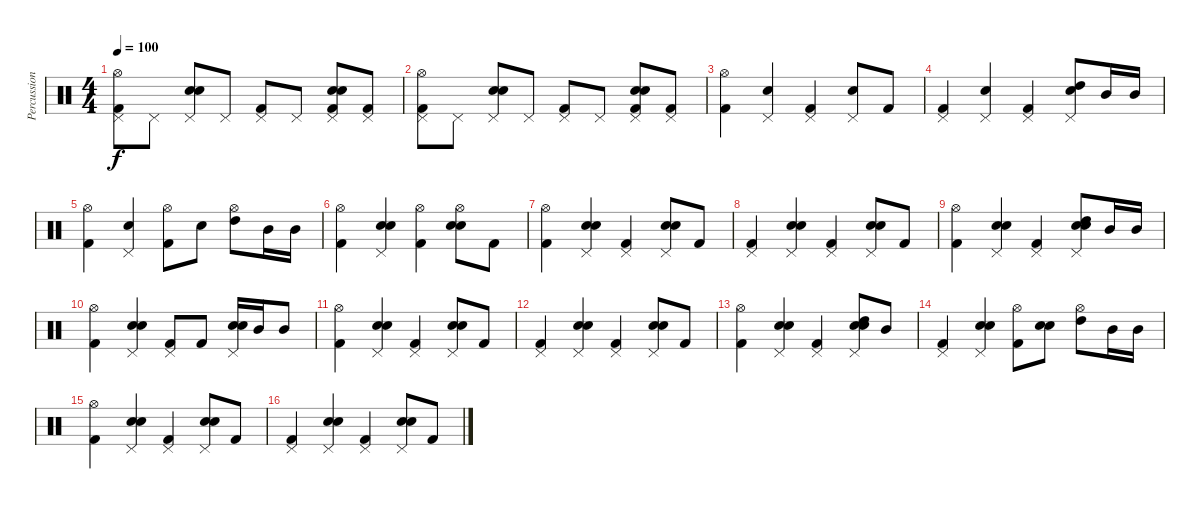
\track ("Percussioni" "Percussion") {instrument percussion}
\staff {score}
\articulation defaults
\ts (4 4)
\tempo 100
\clef neutral
\ks c
("Hi-Hat (open)" "Kick (hit) 2" "Pedal Hi-Hat (hit)").8{dy f} "Pedal Hi-Hat (hit)".8 ("Snare (hit) 2" "Electric Snare (hit)" "Pedal Hi-Hat (hit)").8 "Pedal Hi-Hat (hit)".8 ("Kick (hit) 2" "Pedal Hi-Hat (hit)").8 "Pedal Hi-Hat (hit)".8 ("Snare (hit) 2" "Electric Snare (hit)" "Kick (hit) 2" "Pedal Hi-Hat (hit)").8 ("Kick (hit) 2" "Pedal Hi-Hat (hit)").8 |
("Hi-Hat (open)" "Kick (hit) 2" "Pedal Hi-Hat (hit)").8 "Pedal Hi-Hat (hit)".8 ("Snare (hit) 2" "Electric Snare (hit)" "Pedal Hi-Hat (hit)").8 "Pedal Hi-Hat (hit)".8 ("Kick (hit) 2" "Pedal Hi-Hat (hit)").8 "Pedal Hi-Hat (hit)".8 ("Snare (hit) 2" "Electric Snare (hit)" "Kick (hit) 2" "Pedal Hi-Hat (hit)").8 ("Kick (hit) 2" "Pedal Hi-Hat (hit)").8 |
("Hi-Hat (open)" "Kick (hit) 2").4 ("Electric Snare (hit)" "Pedal Hi-Hat (hit)").4 ("Kick (hit) 2" "Pedal Hi-Hat (hit)").4 ("Electric Snare (hit)" "Pedal Hi-Hat (hit)").8 "Kick (hit) 2".8 |
("Kick (hit) 2" "Pedal Hi-Hat (hit)").4 ("Electric Snare (hit)" "Pedal Hi-Hat (hit)").4 ("Kick (hit) 2" "Pedal Hi-Hat (hit)").4 ("Electric Snare (hit)" "High Tom (hit)" "Pedal Hi-Hat (hit)").8 "Mid Tom (hit)".16 "Mid Tom (hit)".16 |
("Hi-Hat (open)" "Kick (hit) 2").4 ("Electric Snare (hit)" "Pedal Hi-Hat (hit)").4 ("Hi-Hat (open)" "Kick (hit) 2").8 "Electric Snare (hit)".8 ("Hi-Hat (open)" "High Tom (hit)").8 "Mid Tom (hit)".16 "Mid Tom (hit)".16 |
("Hi-Hat (open)" "Kick (hit) 2").4 ("Snare (hit) 2" "Electric Snare (hit)" "Pedal Hi-Hat (hit)").4 ("Hi-Hat (open)" "Kick (hit) 2").4 ("Hi-Hat (open)" "Snare (hit) 2" "Electric Snare (hit)").8 "Kick (hit) 2".8 |
("Hi-Hat (open)" "Kick (hit) 2").4 ("Snare (hit) 2" "Electric Snare (hit)" "Pedal Hi-Hat (hit)").4 ("Kick (hit) 2" "Pedal Hi-Hat (hit)").4 ("Snare (hit) 2" "Electric Snare (hit)" "Pedal Hi-Hat (hit)").8 "Kick (hit) 2".8 |
("Kick (hit) 2" "Pedal Hi-Hat (hit)").4 ("Snare (hit) 2" "Electric Snare (hit)" "Pedal Hi-Hat (hit)").4 ("Kick (hit) 2" "Pedal Hi-Hat (hit)").4 ("Snare (hit) 2" "Electric Snare (hit)" "Pedal Hi-Hat (hit)").8 "Kick (hit) 2".8 |
("Hi-Hat (open)" "Kick (hit) 2").4 ("Snare (hit) 2" "Electric Snare (hit)" "Pedal Hi-Hat (hit)").4 ("Kick (hit) 2" "Pedal Hi-Hat (hit)").4 ("Snare (hit) 2" "Electric Snare (hit)" "High Tom (hit)" "Pedal Hi-Hat (hit)").8 "Mid Tom (hit)".16 "Mid Tom (hit)".16 |
("Hi-Hat (open)" "Kick (hit) 2").4 ("Snare (hit) 2" "Electric Snare (hit)" "Pedal Hi-Hat (hit)").4 ("Kick (hit) 2" "Pedal Hi-Hat (hit)").8 "Kick (hit) 2".8 ("Snare (hit) 2" "Electric Snare (hit)" "Pedal Hi-Hat (hit)").16 "Mid Tom (hit)".16 "Mid Tom (hit)".8 |
("Hi-Hat (open)" "Kick (hit) 2").4 ("Snare (hit) 2" "Electric Snare (hit)" "Pedal Hi-Hat (hit)").4 ("Kick (hit) 2" "Pedal Hi-Hat (hit)").4 ("Snare (hit) 2" "Electric Snare (hit)" "Pedal Hi-Hat (hit)").8 "Kick (hit) 2".8 |
("Kick (hit) 2" "Pedal Hi-Hat (hit)").4 ("Snare (hit) 2" "Electric Snare (hit)" "Pedal Hi-Hat (hit)").4 ("Kick (hit) 2" "Pedal Hi-Hat (hit)").4 ("Snare (hit) 2" "Electric Snare (hit)" "Pedal Hi-Hat (hit)").8 "Kick (hit) 2".8 |
("Hi-Hat (open)" "Kick (hit) 2").4 ("Snare (hit) 2" "Electric Snare (hit)" "Pedal Hi-Hat (hit)").4 ("Kick (hit) 2" "Pedal Hi-Hat (hit)").4 ("Snare (hit) 2" "Electric Snare (hit)" "High Tom (hit)" "Pedal Hi-Hat (hit)").8 "Mid Tom (hit)".8 |
("Kick (hit) 2" "Pedal Hi-Hat (hit)").4 ("Snare (hit) 2" "Electric Snare (hit)" "Pedal Hi-Hat (hit)").4 ("Hi-Hat (open)" "Kick (hit) 2").8 ("Snare (hit) 2" "Electric Snare (hit)").8 ("Hi-Hat (open)" "High Tom (hit)").8 "Mid Tom (hit)".16 "Mid Tom (hit)".16 |
("Hi-Hat (open)" "Kick (hit) 2").4 ("Snare (hit) 2" "Electric Snare (hit)" "Pedal Hi-Hat (hit)").4 ("Kick (hit) 2" "Pedal Hi-Hat (hit)").4 ("Snare (hit) 2" "Electric Snare (hit)" "Pedal Hi-Hat (hit)").8 "Kick (hit) 2".8 |
("Kick (hit) 2" "Pedal Hi-Hat (hit)").4 ("Snare (hit) 2" "Electric Snare (hit)" "Pedal Hi-Hat (hit)").4 ("Kick (hit) 2" "Pedal Hi-Hat (hit)").4 ("Snare (hit) 2" "Electric Snare (hit)" "Pedal Hi-Hat (hit)").8 "Kick (hit) 2".8
